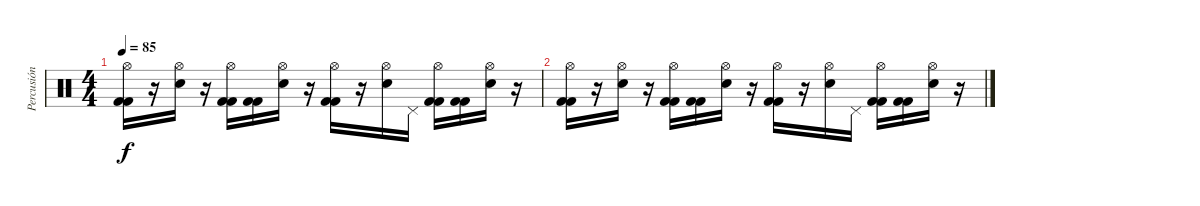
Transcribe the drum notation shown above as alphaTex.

\track ("Percusión" "Percusión") {instrument percussion}
\staff {score}
\articulation defaults
\ts (4 4)
\tempo 85
\clef neutral
\ks c
("Hi-Hat (open)" "Kick (hit) 2" "Kick (hit) 2").16{dy f} r.16 ("Snare (hit) 2" "Hi-Hat (open)").16 r.16 ("Hi-Hat (open)" "Kick (hit) 2" "Kick (hit) 2").16 ("Kick (hit) 2" "Kick (hit) 2").16 ("Hi-Hat (open)" "Snare (hit) 2").16 r.16 ("Hi-Hat (open)" "Kick (hit) 2" "Kick (hit) 2").16 r.16 ("Hi-Hat (open)" "Snare (hit) 2").16 "Pedal Hi-Hat (hit)".16 ("Hi-Hat (open)" "Kick (hit) 2" "Kick (hit) 2").16 ("Kick (hit) 2" "Kick (hit) 2").16 ("Hi-Hat (open)" "Snare (hit) 2").16 r.16 |
("Hi-Hat (open)" "Kick (hit) 2" "Kick (hit) 2").16 r.16 ("Snare (hit) 2" "Hi-Hat (open)").16 r.16 ("Hi-Hat (open)" "Kick (hit) 2" "Kick (hit) 2").16 ("Kick (hit) 2" "Kick (hit) 2").16 ("Hi-Hat (open)" "Snare (hit) 2").16 r.16 ("Hi-Hat (open)" "Kick (hit) 2" "Kick (hit) 2").16 r.16 ("Hi-Hat (open)" "Snare (hit) 2").16 "Pedal Hi-Hat (hit)".16 ("Hi-Hat (open)" "Kick (hit) 2" "Kick (hit) 2").16 ("Kick (hit) 2" "Kick (hit) 2").16 ("Hi-Hat (open)" "Snare (hit) 2").16 r.16
